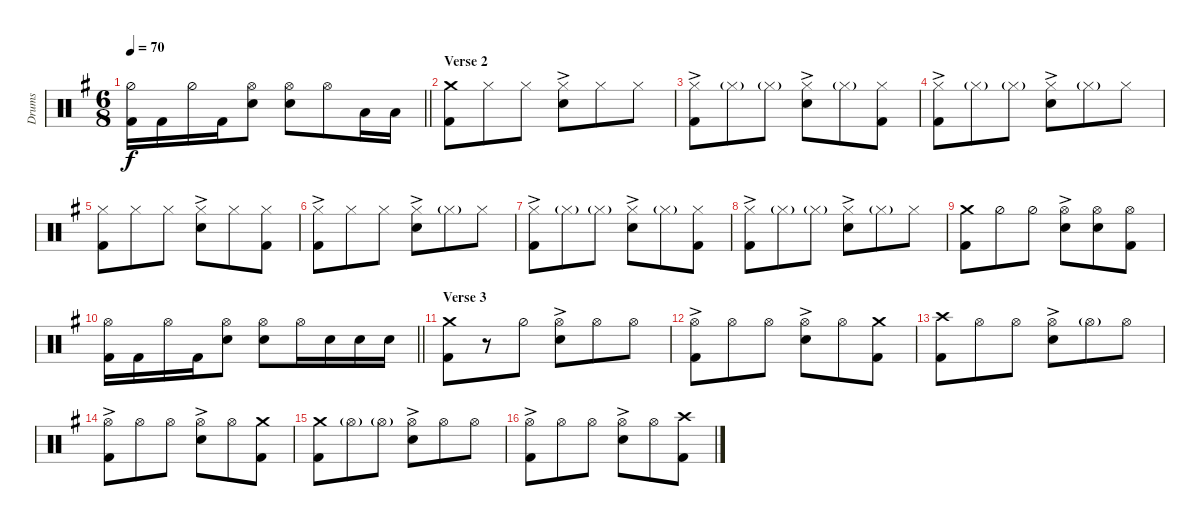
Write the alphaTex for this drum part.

\track ("Drums" "Drums") {instrument percussion}
\staff {score}
\articulation defaults
\ts (6 8)
\tempo 70
\clef neutral
\barLineRight lightlight
\ks g
("Hi-Hat (half)" "Kick (hit) 2").16{dy f} "Kick (hit) 2".16 "Hi-Hat (half)".16 "Kick (hit) 2".16 ("Hi-Hat (open)" "Snare (hit) 2").8 ("Hi-Hat (open)" "Snare (hit) 2").8 "Hi-Hat (open)".8 "Low Tom (hit)".16 "Low Tom (hit)".16 |
\section ("" "Verse 2")
("Crash medium (hit)" "Kick (hit) 2").8 "Hi-Hat (closed)".8 "Hi-Hat (closed)".8 ("Hi-Hat (closed)"{ac} "Snare (hit) 2").8 "Hi-Hat (closed)".8 "Hi-Hat (closed)".8 |
("Hi-Hat (closed)"{ac} "Kick (hit) 2").8 "Hi-Hat (closed)"{g}.8 "Hi-Hat (closed)"{g}.8 ("Hi-Hat (closed)"{ac} "Snare (hit) 2").8 "Hi-Hat (closed)"{g}.8 ("Hi-Hat (closed)" "Kick (hit) 2").8 |
("Hi-Hat (closed)"{ac} "Kick (hit) 2").8 "Hi-Hat (closed)"{g}.8 "Hi-Hat (closed)"{g}.8 ("Hi-Hat (closed)"{ac} "Snare (hit) 2").8 "Hi-Hat (closed)"{g}.8 "Hi-Hat (closed)".8 |
("Hi-Hat (closed)" "Kick (hit) 2").8 "Hi-Hat (closed)".8 "Hi-Hat (closed)".8 ("Hi-Hat (closed)" "Snare (hit) 2"{ac}).8 "Hi-Hat (closed)".8 ("Hi-Hat (closed)" "Kick (hit) 2").8 |
("Hi-Hat (closed)"{ac} "Kick (hit) 2").8 "Hi-Hat (closed)".8 "Hi-Hat (closed)".8 ("Hi-Hat (closed)"{ac} "Snare (hit) 2").8 "Hi-Hat (closed)"{g}.8 "Hi-Hat (closed)".8 |
("Hi-Hat (closed)"{ac} "Kick (hit) 2").8 "Hi-Hat (closed)"{g}.8 "Hi-Hat (closed)"{g}.8 ("Hi-Hat (closed)"{ac} "Snare (hit) 2").8 "Hi-Hat (closed)"{g}.8 ("Hi-Hat (closed)" "Kick (hit) 2").8 |
("Hi-Hat (closed)"{ac} "Kick (hit) 2").8 "Hi-Hat (closed)"{g}.8 "Hi-Hat (closed)"{g}.8 ("Hi-Hat (closed)"{ac} "Snare (hit) 2").8 "Hi-Hat (closed)"{g}.8 "Hi-Hat (closed)".8 |
("Crash medium (hit)" "Kick (hit) 2").8 "Hi-Hat (half)".8 "Hi-Hat (half)".8 ("Hi-Hat (open)"{ac} "Snare (hit) 2").8 ("Hi-Hat (open)" "Snare (hit) 2").8 ("Hi-Hat (open)" "Kick (hit) 2").8 |
\barLineRight lightlight
("Kick (hit) 2" "Hi-Hat (open)").16 "Kick (hit) 2".16 "Hi-Hat (open)".16 "Kick (hit) 2".16 ("Snare (hit) 2" "Hi-Hat (open)").8 ("Snare (hit) 2" "Hi-Hat (open)").8 "Hi-Hat (open)".16 "Snare (hit) 2".16 "Snare (hit) 2".16 "Snare (hit) 2".16 |
\section ("" "Verse 3")
("Crash medium (hit)" "Kick (hit) 2").8 r.8 "Hi-Hat (half)".8 ("Hi-Hat (open)"{ac} "Snare (hit) 2").8 "Hi-Hat (open)".8 "Hi-Hat (open)".8 |
("Hi-Hat (open)"{ac} "Kick (hit) 2").8 "Hi-Hat (open)".8 "Hi-Hat (open)".8 ("Hi-Hat (open)"{ac} "Snare (hit) 2").8 "Hi-Hat (open)".8 ("Crash medium (hit)" "Kick (hit) 2").8 |
("Crash high (hit)" "Kick (hit) 2").8 "Hi-Hat (open)".8 "Hi-Hat (open)".8 ("Hi-Hat (open)"{ac} "Snare (hit) 2").8 "Hi-Hat (open)"{g}.8 "Hi-Hat (open)".8 |
("Hi-Hat (open)"{ac} "Kick (hit) 2").8 "Hi-Hat (open)".8 "Hi-Hat (open)".8 ("Hi-Hat (open)"{ac} "Snare (hit) 2").8 "Hi-Hat (open)".8 ("Crash medium (hit)" "Kick (hit) 2").8 |
("Crash medium (hit)" "Kick (hit) 2").8 "Hi-Hat (open)"{g}.8 "Hi-Hat (open)"{g}.8 ("Hi-Hat (open)"{ac} "Snare (hit) 2").8 "Hi-Hat (open)".8 "Hi-Hat (open)".8 |
("Hi-Hat (open)"{ac} "Kick (hit) 2").8 "Hi-Hat (open)".8 "Hi-Hat (open)".8 ("Hi-Hat (open)"{ac} "Snare (hit) 2").8 "Hi-Hat (open)".8 ("Crash high (hit)" "Kick (hit) 2").8
